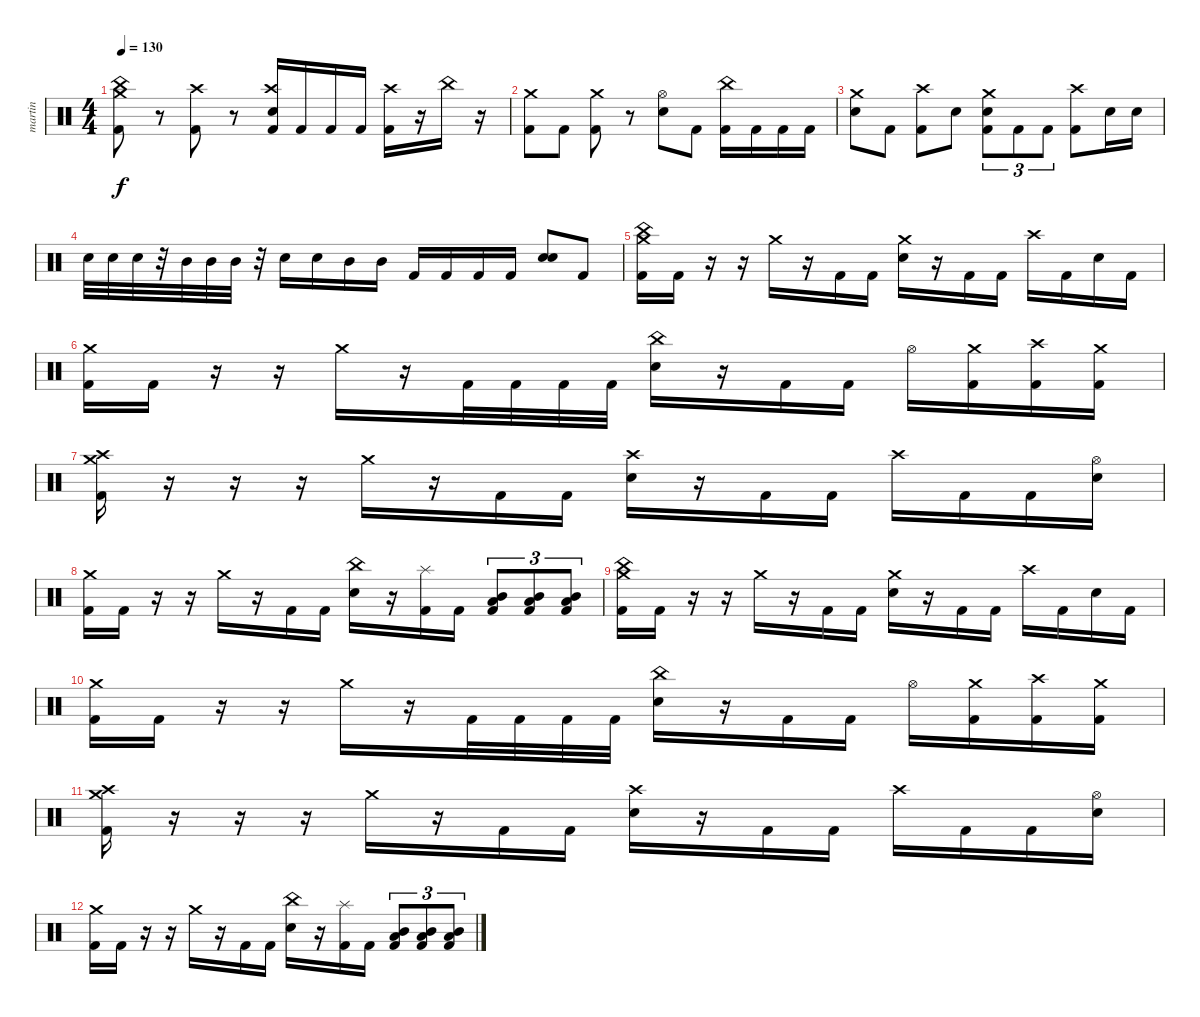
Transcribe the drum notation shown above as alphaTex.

\track ("martin" "martin") {instrument percussion}
\staff {score}
\articulation defaults
\ts (4 4)
\tempo 130
\clef neutral
\ks c
("Crash medium (hit)" "China (hit)" "Kick (hit) 2").8{dy f} r.8 ("Crash high (hit)" "Kick (hit) 2").8 r.8 ("Crash high (hit)" "Electric Snare (hit)" "Kick (hit) 2").16 "Kick (hit) 2".16 "Kick (hit) 2".16 "Kick (hit) 2".16 ("Crash high (hit)" "Kick (hit) 2").16 r.16 "China (hit)".16 r.16 |
("Crash medium (hit)" "Kick (hit) 2").8 "Kick (hit) 2".8 ("Crash medium (hit)" "Kick (hit) 2").8 r.8 ("Hi-Hat (open)" "Electric Snare (hit)").8 "Kick (hit) 2".8 ("China (hit)" "Kick (hit) 2").16 "Kick (hit) 2".16 "Kick (hit) 2".16 "Kick (hit) 2".16 |
("Crash medium (hit)" "Electric Snare (hit)").8 "Kick (hit) 2".8 ("Crash high (hit)" "Kick (hit) 2").8 "Electric Snare (hit)".8 ("Crash medium (hit)" "Electric Snare (hit)" "Kick (hit) 2").8{tu (3 2)} "Kick (hit) 2".8{tu (3 2)} "Kick (hit) 2".8{tu (3 2)} ("Crash high (hit)" "Kick (hit) 2").8 "Electric Snare (hit)".16 "Electric Snare (hit)".16 |
"Electric Snare (hit)".32 "Electric Snare (hit)".32 "Electric Snare (hit)".32 r.32 "Mid Tom (hit)".32 "Mid Tom (hit)".32 "Mid Tom (hit)".32 r.32 "Electric Snare (hit)".16 "Electric Snare (hit)".16 "Mid Tom (hit)".16 "Mid Tom (hit)".16 "Kick (hit) 2".16 "Kick (hit) 2".16 "Kick (hit) 2".16 "Kick (hit) 2".16 ("Electric Snare (hit)" "Electric Snare (hit)").8{bd 240} "Kick (hit) 2".8 |
("Crash medium (hit)" "China (hit)" "Kick (hit) 2").16 "Kick (hit) 2".16 r.16 r.16 "Crash medium (hit)".16 r.16 "Kick (hit) 2".16 "Kick (hit) 2".16 ("Crash medium (hit)" "Electric Snare (hit)").16 r.16 "Kick (hit) 2".16 "Kick (hit) 2".16 "Crash high (hit)".16 "Kick (hit) 2".16 "Electric Snare (hit)".16 "Kick (hit) 2".16 |
("Crash medium (hit)" "Kick (hit) 2").16 "Kick (hit) 2".16 r.16 r.16 "Crash medium (hit)".16 r.16 "Kick (hit) 2".32 "Kick (hit) 2".32 "Kick (hit) 2".32 "Kick (hit) 2".32 ("China (hit)" "Electric Snare (hit)").16 r.16 "Kick (hit) 2".16 "Kick (hit) 2".16 "Hi-Hat (open)".16 ("Crash medium (hit)" "Kick (hit) 2").16 ("Crash high (hit)" "Kick (hit) 2").16 ("Crash medium (hit)" "Kick (hit) 2").16 |
("Crash medium (hit)" "Crash high (hit)" "Kick (hit) 2").16 r.16 r.16 r.16 "Crash medium (hit)".16 r.16 "Kick (hit) 2".16 "Kick (hit) 2".16 ("Crash high (hit)" "Electric Snare (hit)").16 r.16 "Kick (hit) 2".16 "Kick (hit) 2".16 "Crash high (hit)".16 "Kick (hit) 2".16 "Kick (hit) 2".16 ("Hi-Hat (open)" "Electric Snare (hit)").16 |
("Crash medium (hit)" "Kick (hit) 2").16 "Kick (hit) 2".16 r.16 r.16 "Crash medium (hit)".16 r.16 "Kick (hit) 2".16 "Kick (hit) 2".16 ("China (hit)" "Electric Snare (hit)").16 r.16 ("Splash (hit)" "Kick (hit) 2").16 "Kick (hit) 2".16 ("Low Floor Tom (hit)" "Mid Tom (hit)" "Kick (hit) 2").8{tu (3 2)} ("Low Floor Tom (hit)" "Mid Tom (hit)" "Kick (hit) 2").8{tu (3 2)} ("Low Floor Tom (hit)" "Mid Tom (hit)" "Kick (hit) 2").8{tu (3 2)} |
("Crash medium (hit)" "China (hit)" "Kick (hit) 2").16 "Kick (hit) 2".16 r.16 r.16 "Crash medium (hit)".16 r.16 "Kick (hit) 2".16 "Kick (hit) 2".16 ("Crash medium (hit)" "Electric Snare (hit)").16 r.16 "Kick (hit) 2".16 "Kick (hit) 2".16 "Crash high (hit)".16 "Kick (hit) 2".16 "Electric Snare (hit)".16 "Kick (hit) 2".16 |
("Crash medium (hit)" "Kick (hit) 2").16 "Kick (hit) 2".16 r.16 r.16 "Crash medium (hit)".16 r.16 "Kick (hit) 2".32 "Kick (hit) 2".32 "Kick (hit) 2".32 "Kick (hit) 2".32 ("China (hit)" "Electric Snare (hit)").16 r.16 "Kick (hit) 2".16 "Kick (hit) 2".16 "Hi-Hat (open)".16 ("Crash medium (hit)" "Kick (hit) 2").16 ("Crash high (hit)" "Kick (hit) 2").16 ("Crash medium (hit)" "Kick (hit) 2").16 |
("Crash medium (hit)" "Crash high (hit)" "Kick (hit) 2").16 r.16 r.16 r.16 "Crash medium (hit)".16 r.16 "Kick (hit) 2".16 "Kick (hit) 2".16 ("Crash high (hit)" "Electric Snare (hit)").16 r.16 "Kick (hit) 2".16 "Kick (hit) 2".16 "Crash high (hit)".16 "Kick (hit) 2".16 "Kick (hit) 2".16 ("Hi-Hat (open)" "Electric Snare (hit)").16 |
("Crash medium (hit)" "Kick (hit) 2").16 "Kick (hit) 2".16 r.16 r.16 "Crash medium (hit)".16 r.16 "Kick (hit) 2".16 "Kick (hit) 2".16 ("China (hit)" "Electric Snare (hit)").16 r.16 ("Splash (hit)" "Kick (hit) 2").16 "Kick (hit) 2".16 ("Low Floor Tom (hit)" "Mid Tom (hit)" "Kick (hit) 2").8{tu (3 2)} ("Low Floor Tom (hit)" "Mid Tom (hit)" "Kick (hit) 2").8{tu (3 2)} ("Low Floor Tom (hit)" "Mid Tom (hit)" "Kick (hit) 2").8{tu (3 2)}
